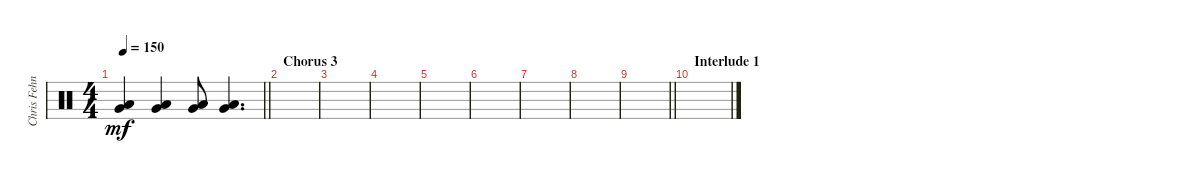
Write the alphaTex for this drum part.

\track ("Chris Fehn" "Chris Fehn") {instrument percussion}
\staff {score}
\articulation defaults
\ts (4 4)
\tempo 150
\clef neutral
\barLineRight lightlight
\ks c
("Very Low Tom (hit)" "Low Floor Tom (hit)").4{dy mf} ("Very Low Tom (hit)" "Low Floor Tom (hit)").4 ("Very Low Tom (hit)" "Low Floor Tom (hit)").8 ("Very Low Tom (hit)" "Low Floor Tom (hit)").4{d} |
\section ("" "Chorus 3")
|
|
|
|
|
|
|
\barLineRight lightlight
|
\section ("" "Interlude 1")
